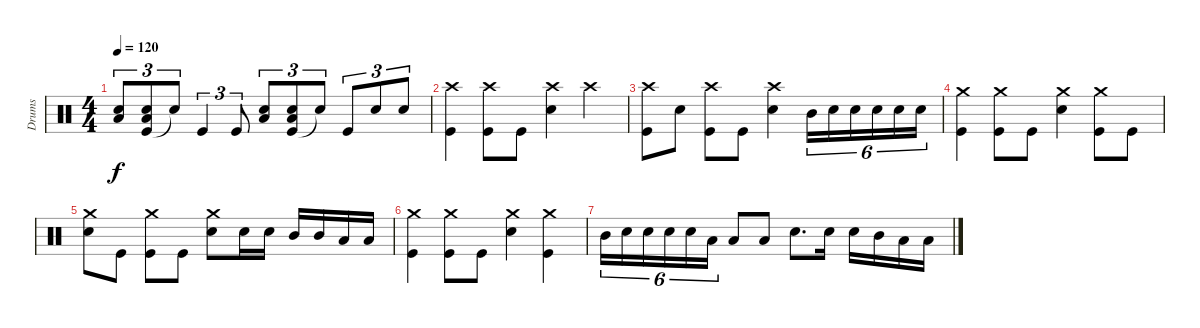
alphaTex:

\track ("Drums" "Drums") {instrument percussion}
\staff {score}
\articulation defaults
\ts (4 4)
\tempo 120
\clef neutral
\ks c
("Snare (hit) 2" "Low Floor Tom (hit)").8{tu (3 2) dy f} ("Kick (hit)" "Snare (hit) 2" "Low Floor Tom (hit)").8{tu (3 2)} "Snare (hit) 2"{t}.8{tu (3 2)} "Kick (hit)".4{tu (3 2)} "Kick (hit)".8{tu (3 2)} ("Snare (hit) 2" "Low Floor Tom (hit)").8{tu (3 2)} ("Kick (hit)" "Snare (hit) 2" "Low Floor Tom (hit)").8{tu (3 2)} "Snare (hit)"{t}.8{tu (3 2)} "Kick (hit)".8{tu (3 2)} "Snare (hit) 2".8{tu (3 2)} "Snare (hit) 2".8{tu (3 2)} |
("Kick (hit)" "Crash high (hit)").4 ("Kick (hit)" "Crash high (hit)").8 "Kick (hit)".8 ("Snare (hit) 2" "Crash high (hit)").4 "Crash high (hit)".4 |
("Kick (hit)" "Crash high (hit)").8 "Snare (hit) 2".8 ("Kick (hit)" "Crash high (hit)").8 "Kick (hit)".8 ("Snare (hit) 2" "Crash high (hit)").4 "Mid Tom (hit)".16{tu (6 4)} "Snare (hit) 2".16{tu (6 4)} "Snare (hit) 2".16{tu (6 4)} "Snare (hit) 2".16{tu (6 4)} "Snare (hit) 2".16{tu (6 4)} "Snare (hit) 2".16{tu (6 4)} |
("Kick (hit)" "Crash medium (hit)").4 ("Kick (hit)" "Crash medium (hit)").8 "Kick (hit)".8 ("Snare (hit) 2" "Crash medium (hit)").4 ("Kick (hit)" "Crash medium (hit)").8 "Kick (hit)".8 |
("Snare (hit) 2" "Crash medium (hit)").8 "Kick (hit)".8 ("Kick (hit)" "Crash medium (hit)").8 "Kick (hit)".8 ("Snare (hit) 2" "Crash medium (hit)").8 "Snare (hit) 2".16 "Snare (hit) 2".16 "Mid Tom (hit)".16 "Mid Tom (hit)".16 "Low Tom (hit)".16 "Low Tom (hit)".16 |
("Kick (hit)" "Crash medium (hit)").4 ("Kick (hit)" "Crash medium (hit)").8 "Kick (hit)".8 ("Snare (hit) 2" "Crash medium (hit)").4 ("Kick (hit)" "Crash medium (hit)").4 |
"Mid Tom (hit)".16{tu (6 4)} "Snare (hit) 2".16{tu (6 4)} "Snare (hit) 2".16{tu (6 4)} "Snare (hit) 2".16{tu (6 4)} "Snare (hit) 2".16{tu (6 4)} "Low Tom (hit)".16{tu (6 4)} "Low Tom (hit)".8 "Low Tom (hit)".8 "Snare (hit) 2".8{d} "Snare (hit) 2".16 "Snare (hit) 2".16 "Mid Tom (hit)".16 "Low Tom (hit)".16 "Low Floor Tom (hit)".16
